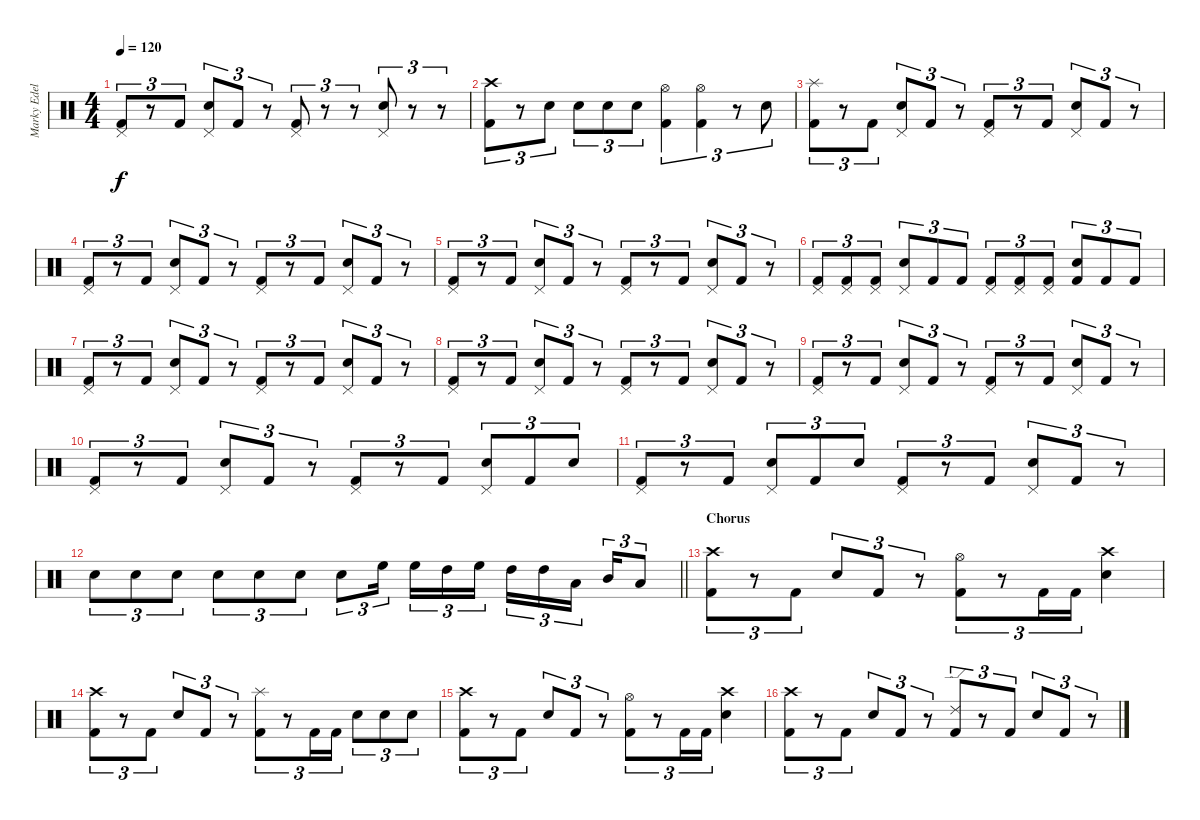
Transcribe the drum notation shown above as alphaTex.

\track ("Marky Edelmann" "Marky Edel") {instrument percussion}
\staff {score}
\articulation defaults
\ts (4 4)
\tempo 120
\clef neutral
\ks c
("Pedal Hi-Hat (hit)" "Kick (hit) 2").8{tu (3 2) dy f} r.8{tu (3 2)} "Kick (hit) 2".8{tu (3 2)} ("Pedal Hi-Hat (hit)" "Snare (hit) 2").8{tu (3 2)} "Kick (hit) 2".8{tu (3 2)} r.8{tu (3 2)} ("Pedal Hi-Hat (hit)" "Kick (hit) 2").8{tu (3 2)} r.8{tu (3 2)} r.8{tu (3 2)} ("Pedal Hi-Hat (hit)" "Snare (hit) 2").8{tu (3 2)} r.8{tu (3 2)} r.8{tu (3 2)} |
("Crash high (hit)" "Kick (hit) 2").8{tu (3 2)} r.8{tu (3 2)} "Snare (hit) 2".8{tu (3 2)} "Snare (hit) 2".8{tu (3 2)} "Snare (hit) 2".8{tu (3 2)} "Snare (hit) 2".8{tu (3 2)} ("Hi-Hat (open)" "Kick (hit) 2").4{tu (3 2)} ("Hi-Hat (open)" "Kick (hit) 2").4{tu (3 2)} r.8{tu (3 2)} "Snare (hit) 2".8{tu (3 2)} |
("Splash (hit)" "Kick (hit) 2").8{tu (3 2)} r.8{tu (3 2)} "Kick (hit) 2".8{tu (3 2)} ("Pedal Hi-Hat (hit)" "Snare (hit) 2").8{tu (3 2)} "Kick (hit) 2".8{tu (3 2)} r.8{tu (3 2)} ("Pedal Hi-Hat (hit)" "Kick (hit) 2").8{tu (3 2)} r.8{tu (3 2)} "Kick (hit) 2".8{tu (3 2)} ("Pedal Hi-Hat (hit)" "Snare (hit) 2").8{tu (3 2)} "Kick (hit) 2".8{tu (3 2)} r.8{tu (3 2)} |
("Pedal Hi-Hat (hit)" "Kick (hit) 2").8{tu (3 2)} r.8{tu (3 2)} "Kick (hit) 2".8{tu (3 2)} ("Pedal Hi-Hat (hit)" "Snare (hit) 2").8{tu (3 2)} "Kick (hit) 2".8{tu (3 2)} r.8{tu (3 2)} ("Pedal Hi-Hat (hit)" "Kick (hit) 2").8{tu (3 2)} r.8{tu (3 2)} "Kick (hit) 2".8{tu (3 2)} ("Pedal Hi-Hat (hit)" "Snare (hit) 2").8{tu (3 2)} "Kick (hit) 2".8{tu (3 2)} r.8{tu (3 2)} |
("Pedal Hi-Hat (hit)" "Kick (hit) 2").8{tu (3 2)} r.8{tu (3 2)} "Kick (hit) 2".8{tu (3 2)} ("Pedal Hi-Hat (hit)" "Snare (hit) 2").8{tu (3 2)} "Kick (hit) 2".8{tu (3 2)} r.8{tu (3 2)} ("Pedal Hi-Hat (hit)" "Kick (hit) 2").8{tu (3 2)} r.8{tu (3 2)} "Kick (hit) 2".8{tu (3 2)} ("Pedal Hi-Hat (hit)" "Snare (hit) 2").8{tu (3 2)} "Kick (hit) 2".8{tu (3 2)} r.8{tu (3 2)} |
("Pedal Hi-Hat (hit)" "Kick (hit) 2").8{tu (3 2)} ("Pedal Hi-Hat (hit)" "Kick (hit) 2").8{tu (3 2)} ("Pedal Hi-Hat (hit)" "Kick (hit) 2").8{tu (3 2)} ("Pedal Hi-Hat (hit)" "Snare (hit) 2").8{tu (3 2)} "Kick (hit) 2".8{tu (3 2)} "Kick (hit) 2".8{tu (3 2)} ("Pedal Hi-Hat (hit)" "Kick (hit) 2").8{tu (3 2)} ("Pedal Hi-Hat (hit)" "Kick (hit) 2").8{tu (3 2)} ("Pedal Hi-Hat (hit)" "Kick (hit) 2").8{tu (3 2)} ("Snare (hit) 2" "Kick (hit) 2").8{tu (3 2)} "Kick (hit) 2".8{tu (3 2)} "Kick (hit) 2".8{tu (3 2)} |
("Pedal Hi-Hat (hit)" "Kick (hit) 2").8{tu (3 2)} r.8{tu (3 2)} "Kick (hit) 2".8{tu (3 2)} ("Pedal Hi-Hat (hit)" "Snare (hit) 2").8{tu (3 2)} "Kick (hit) 2".8{tu (3 2)} r.8{tu (3 2)} ("Pedal Hi-Hat (hit)" "Kick (hit) 2").8{tu (3 2)} r.8{tu (3 2)} "Kick (hit) 2".8{tu (3 2)} ("Pedal Hi-Hat (hit)" "Snare (hit) 2").8{tu (3 2)} "Kick (hit) 2".8{tu (3 2)} r.8{tu (3 2)} |
("Pedal Hi-Hat (hit)" "Kick (hit) 2").8{tu (3 2)} r.8{tu (3 2)} "Kick (hit) 2".8{tu (3 2)} ("Pedal Hi-Hat (hit)" "Snare (hit) 2").8{tu (3 2)} "Kick (hit) 2".8{tu (3 2)} r.8{tu (3 2)} ("Pedal Hi-Hat (hit)" "Kick (hit) 2").8{tu (3 2)} r.8{tu (3 2)} "Kick (hit) 2".8{tu (3 2)} ("Pedal Hi-Hat (hit)" "Snare (hit) 2").8{tu (3 2)} "Kick (hit) 2".8{tu (3 2)} r.8{tu (3 2)} |
("Pedal Hi-Hat (hit)" "Kick (hit) 2").8{tu (3 2)} r.8{tu (3 2)} "Kick (hit) 2".8{tu (3 2)} ("Pedal Hi-Hat (hit)" "Snare (hit) 2").8{tu (3 2)} "Kick (hit) 2".8{tu (3 2)} r.8{tu (3 2)} ("Pedal Hi-Hat (hit)" "Kick (hit) 2").8{tu (3 2)} r.8{tu (3 2)} "Kick (hit) 2".8{tu (3 2)} ("Pedal Hi-Hat (hit)" "Snare (hit) 2").8{tu (3 2)} "Kick (hit) 2".8{tu (3 2)} r.8{tu (3 2)} |
("Pedal Hi-Hat (hit)" "Kick (hit) 2").8{tu (3 2)} r.8{tu (3 2)} "Kick (hit) 2".8{tu (3 2)} ("Pedal Hi-Hat (hit)" "Snare (hit) 2").8{tu (3 2)} "Kick (hit) 2".8{tu (3 2)} r.8{tu (3 2)} ("Pedal Hi-Hat (hit)" "Kick (hit) 2").8{tu (3 2)} r.8{tu (3 2)} "Kick (hit) 2".8{tu (3 2)} ("Pedal Hi-Hat (hit)" "Snare (hit) 2").8{tu (3 2)} "Kick (hit) 2".8{tu (3 2)} "Snare (hit) 2".8{tu (3 2)} |
("Pedal Hi-Hat (hit)" "Kick (hit) 2").8{tu (3 2)} r.8{tu (3 2)} "Kick (hit) 2".8{tu (3 2)} ("Pedal Hi-Hat (hit)" "Snare (hit) 2").8{tu (3 2)} "Kick (hit) 2".8{tu (3 2)} "Snare (hit) 2".8{tu (3 2)} ("Pedal Hi-Hat (hit)" "Kick (hit) 2").8{tu (3 2)} r.8{tu (3 2)} "Kick (hit) 2".8{tu (3 2)} ("Pedal Hi-Hat (hit)" "Snare (hit) 2").8{tu (3 2)} "Kick (hit) 2".8{tu (3 2)} r.8{tu (3 2)} |
\barLineRight lightlight "Snare (hit) 2".8{tu (3 2)} "Snare (hit) 2".8{tu (3 2)} "Snare (hit) 2".8{tu (3 2)} "Snare (hit) 2".8{tu (3 2)} "Snare (hit) 2".8{tu (3 2)} "Snare (hit) 2".8{tu (3 2)} "Snare (hit) 2".8{tu (3 2)} "High Floor Tom (hit)".16{tu (3 2) beam splitsecondary} "High Floor Tom (hit)".16{tu (3 2)} "High Tom (hit)".16{tu (3 2)} "High Floor Tom (hit)".16{tu (3 2)} "High Tom (hit)".16{tu (3 2)} "High Tom (hit)".16{tu (3 2)} "Low Tom (hit)".16{tu (3 2) beam splitsecondary} "Mid Tom (hit)".16{tu (3 2)} "Low Tom (hit)".8{tu (3 2)}
|
\section ("" "Chorus")
("Crash high (hit)" "Kick (hit) 2").8{tu (3 2)} r.8{tu (3 2)} "Kick (hit) 2".8{tu (3 2)} "Snare (hit) 2".8{tu (3 2)} "Kick (hit) 2".8{tu (3 2)} r.8{tu (3 2)} ("Hi-Hat (open)" "Kick (hit) 2").8{tu (3 2)} r.8{tu (3 2)} "Kick (hit) 2".16{tu (3 2)} "Kick (hit) 2".16{tu (3 2)} ("Crash high (hit)" "Snare (hit) 2").4 |
("Crash high (hit)" "Kick (hit) 2").8{tu (3 2)} r.8{tu (3 2)} "Kick (hit) 2".8{tu (3 2)} "Snare (hit) 2".8{tu (3 2)} "Kick (hit) 2".8{tu (3 2)} r.8{tu (3 2)} ("Splash (hit)" "Kick (hit) 2").8{tu (3 2)} r.8{tu (3 2)} "Kick (hit) 2".16{tu (3 2)} "Kick (hit) 2".16{tu (3 2)} "Snare (hit) 2".8{tu (3 2)} "Snare (hit) 2".8{tu (3 2)} "Snare (hit) 2".8{tu (3 2)} |
("Crash high (hit)" "Kick (hit) 2").8{tu (3 2)} r.8{tu (3 2)} "Kick (hit) 2".8{tu (3 2)} "Snare (hit) 2".8{tu (3 2)} "Kick (hit) 2".8{tu (3 2)} r.8{tu (3 2)} ("Hi-Hat (open)" "Kick (hit) 2").8{tu (3 2)} r.8{tu (3 2)} "Kick (hit) 2".16{tu (3 2)} "Kick (hit) 2".16{tu (3 2)} ("Crash high (hit)" "Snare (hit) 2").4 |
("Crash high (hit)" "Kick (hit) 2").8{tu (3 2)} r.8{tu (3 2)} "Kick (hit) 2".8{tu (3 2)} "Snare (hit) 2".8{tu (3 2)} "Kick (hit) 2".8{tu (3 2)} r.8{tu (3 2)} ("Ride (edge) 2" "Kick (hit) 2").8{tu (3 2)} r.8{tu (3 2)} "Kick (hit) 2".8{tu (3 2)} "Snare (hit) 2".8{tu (3 2)} "Kick (hit) 2".8{tu (3 2)} r.8{tu (3 2)}
